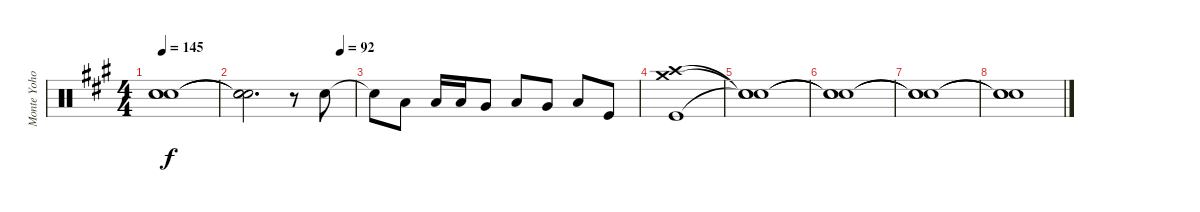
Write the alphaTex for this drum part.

\track ("Monte Yoho Drums" "Monte Yoho") {instrument percussion}
\staff {score}
\articulation defaults
\ts (4 4)
\tempo 145
\clef neutral
\ks a
("Snare (hit)"{t} "Snare (hit)"{t} "Snare (hit)"{t}).1{dy f} |
\tempo (120 0.875)
\tempo (92 0.875)
("Snare (hit)"{t} "Snare (hit)"{t} "Snare (hit)"{t}).2{d} r.8 "Snare (hit) 2".8 |
"Snare (hit) 2"{t}.8 "Low Tom (hit)".8 "Low Tom (hit)".16 "Low Tom (hit)".16 "Very Low Tom (hit)".8 "Low Floor Tom (hit)".8 "Very Low Tom (hit)".8 "Low Floor Tom (hit)".8 "Kick (hit)".8 |
("Crash high (hit)" "Crash medium (hit)" "Kick (hit)").1 |
("Snare (hit)"{t} "Snare (hit)"{t} "Snare (hit)"{t}).1 |
("Snare (hit)"{t} "Snare (hit)"{t} "Snare (hit)"{t}).1 |
("Snare (hit)"{t} "Snare (hit)"{t} "Snare (hit)"{t}).1 |
("Snare (hit)"{t} "Snare (hit)"{t} "Snare (hit)"{t}).1
